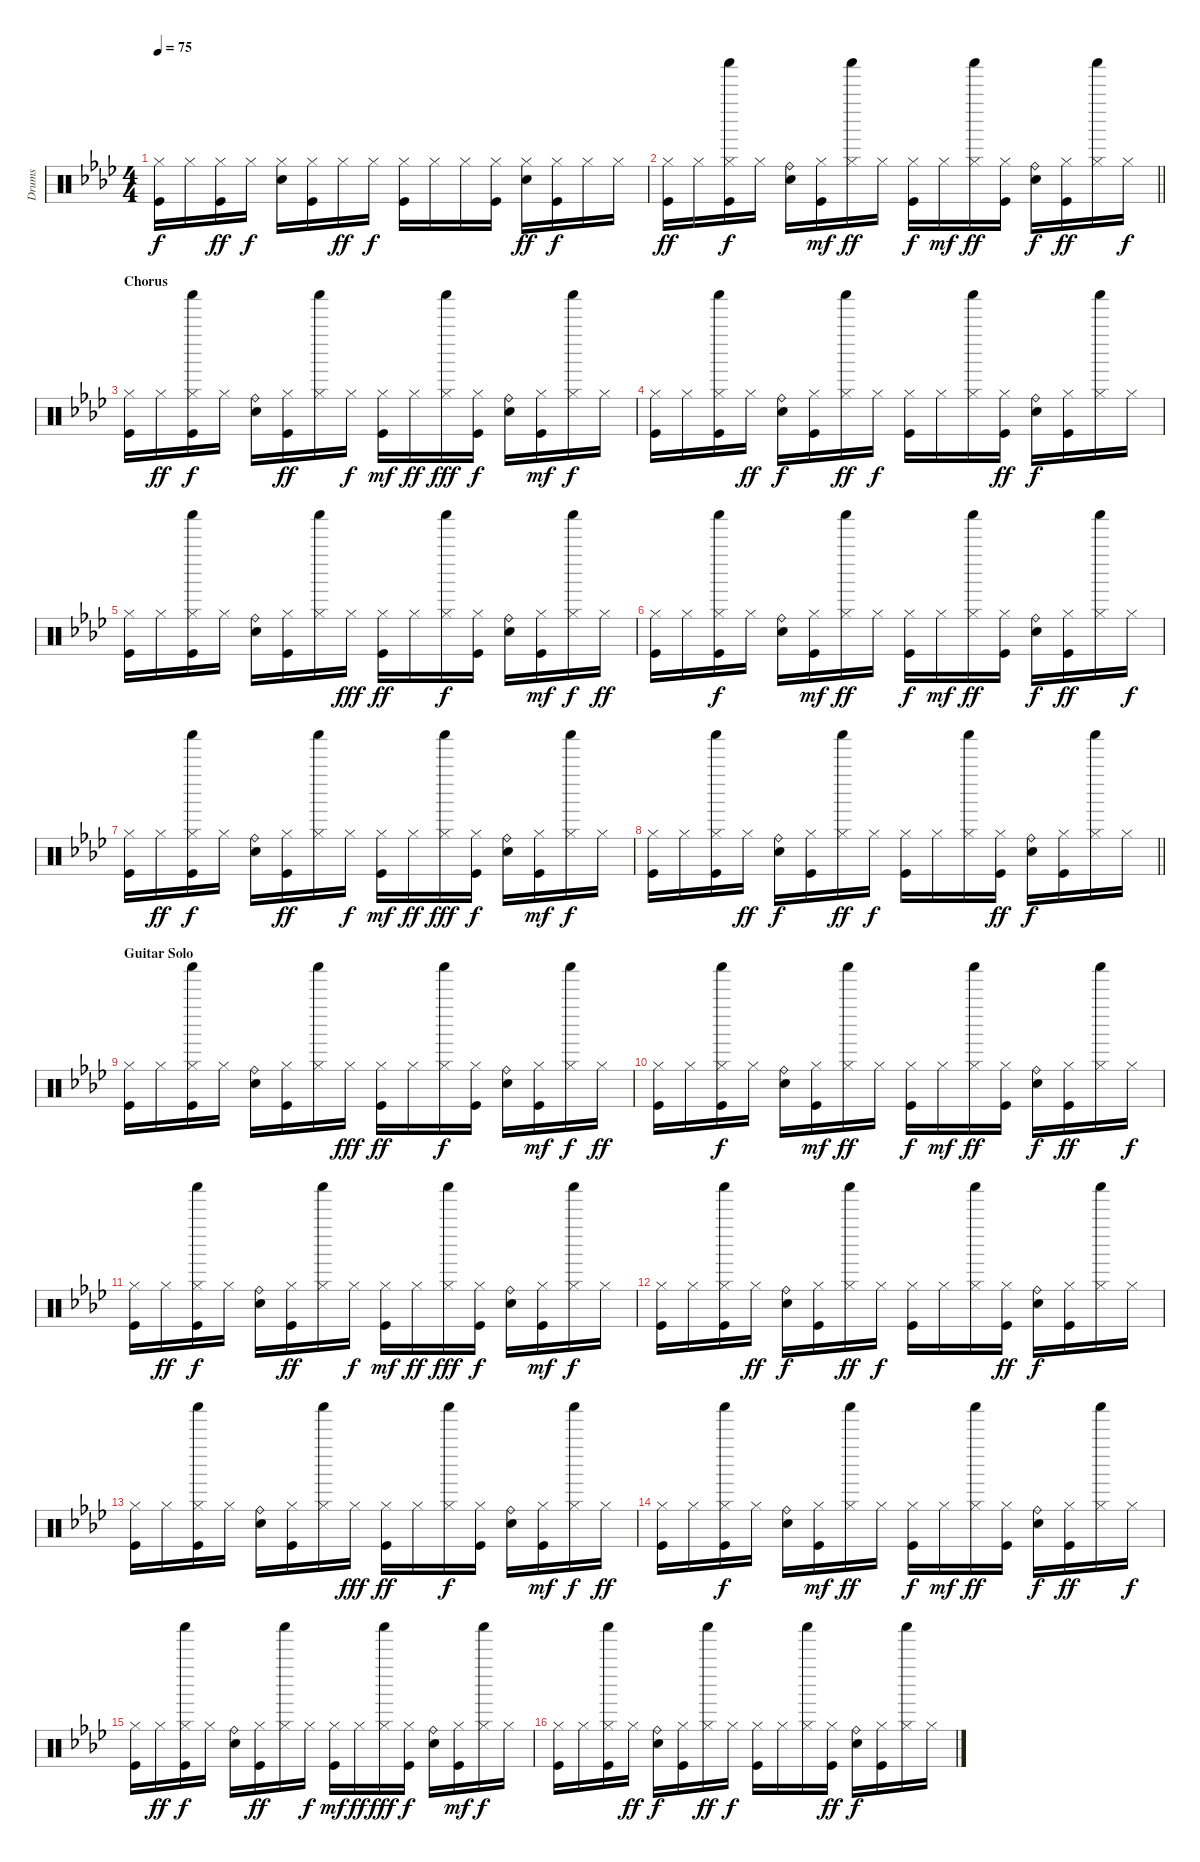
\track ("Drums" "Drums") {instrument percussion}
\staff {score}
\articulation defaults
\ts (4 4)
\tempo 75
\clef neutral
\ks fminor
("Hi-Hat (closed)" "Kick (hit)").16{dy f} "Hi-Hat (closed)".16 ("Hi-Hat (closed)" "Kick (hit)").16{dy ff} "Hi-Hat (closed)".16{dy f} ("Hi-Hat (closed)" "Electric Snare (hit)").16 ("Hi-Hat (closed)" "Kick (hit)").16 "Hi-Hat (closed)".16{dy ff} "Hi-Hat (closed)".16{dy f} ("Hi-Hat (closed)" "Kick (hit)").16 "Hi-Hat (closed)".16 "Hi-Hat (closed)".16 ("Hi-Hat (closed)" "Kick (hit)").16 ("Hi-Hat (closed)" "Electric Snare (hit)").16{dy ff} ("Hi-Hat (closed)" "Kick (hit)").16{dy f} "Hi-Hat (closed)".16 "Hi-Hat (closed)".16 |
\barLineRight lightlight
("Hi-Hat (closed)" "Kick (hit)").16{dy ff} "Hi-Hat (closed)".16 ("Shaker (hit)" "Hi-Hat (closed)" "Kick (hit)").16{dy f} "Hi-Hat (closed)".16 ("Ride (bell)" "Electric Snare (hit)").16 ("Hi-Hat (closed)" "Kick (hit)").16{dy mf} ("Shaker (hit)" "Hi-Hat (closed)").16{dy ff} "Hi-Hat (closed)".16 ("Hi-Hat (closed)" "Kick (hit)").16{dy f} "Hi-Hat (closed)".16{dy mf} ("Shaker (hit)" "Hi-Hat (closed)").16{dy ff} ("Hi-Hat (closed)" "Kick (hit)").16 ("Ride (bell)" "Electric Snare (hit)").16{dy f} ("Hi-Hat (closed)" "Kick (hit)").16{dy ff} ("Shaker (hit)" "Hi-Hat (closed)").16 "Hi-Hat (closed)".16{dy f} |
\section ("" "Chorus")
("Hi-Hat (closed)" "Kick (hit)").16 "Hi-Hat (closed)".16{dy ff} ("Shaker (hit)" "Hi-Hat (closed)" "Kick (hit)").16{dy f} "Hi-Hat (closed)".16 ("Ride (bell)" "Electric Snare (hit)").16 ("Hi-Hat (closed)" "Kick (hit)").16{dy ff} ("Shaker (hit)" "Hi-Hat (closed)").16 "Hi-Hat (closed)".16{dy f} ("Hi-Hat (closed)" "Kick (hit)").16{dy mf} "Hi-Hat (closed)".16{dy ff} ("Shaker (hit)" "Hi-Hat (closed)").16{dy fff} ("Hi-Hat (closed)" "Kick (hit)").16{dy f} ("Ride (bell)" "Electric Snare (hit)").16 ("Hi-Hat (closed)" "Kick (hit)").16{dy mf} ("Shaker (hit)" "Hi-Hat (closed)").16{dy f} "Hi-Hat (closed)".16 |
("Hi-Hat (closed)" "Kick (hit)").16 "Hi-Hat (closed)".16 ("Shaker (hit)" "Hi-Hat (closed)" "Kick (hit)").16 "Hi-Hat (closed)".16{dy ff} ("Ride (bell)" "Electric Snare (hit)").16{dy f} ("Hi-Hat (closed)" "Kick (hit)").16 ("Shaker (hit)" "Hi-Hat (closed)").16{dy ff} "Hi-Hat (closed)".16{dy f} ("Hi-Hat (closed)" "Kick (hit)").16 "Hi-Hat (closed)".16 ("Shaker (hit)" "Hi-Hat (closed)").16 ("Hi-Hat (closed)" "Kick (hit)").16{dy ff} ("Ride (bell)" "Electric Snare (hit)").16{dy f} ("Hi-Hat (closed)" "Kick (hit)").16 ("Shaker (hit)" "Hi-Hat (closed)").16 "Hi-Hat (closed)".16 |
("Hi-Hat (closed)" "Kick (hit)").16 "Hi-Hat (closed)".16 ("Shaker (hit)" "Hi-Hat (closed)" "Kick (hit)").16 "Hi-Hat (closed)".16 ("Ride (bell)" "Electric Snare (hit)").16 ("Hi-Hat (closed)" "Kick (hit)").16 ("Shaker (hit)" "Hi-Hat (closed)").16 "Hi-Hat (closed)".16{dy fff} ("Hi-Hat (closed)" "Kick (hit)").16{dy ff} "Hi-Hat (closed)".16 ("Shaker (hit)" "Hi-Hat (closed)").16{dy f} ("Hi-Hat (closed)" "Kick (hit)").16 ("Ride (bell)" "Electric Snare (hit)").16 ("Hi-Hat (closed)" "Kick (hit)").16{dy mf} ("Shaker (hit)" "Hi-Hat (closed)").16{dy f} "Hi-Hat (closed)".16{dy ff} |
("Hi-Hat (closed)" "Kick (hit)").16 "Hi-Hat (closed)".16 ("Shaker (hit)" "Hi-Hat (closed)" "Kick (hit)").16{dy f} "Hi-Hat (closed)".16 ("Ride (bell)" "Electric Snare (hit)").16 ("Hi-Hat (closed)" "Kick (hit)").16{dy mf} ("Shaker (hit)" "Hi-Hat (closed)").16{dy ff} "Hi-Hat (closed)".16 ("Hi-Hat (closed)" "Kick (hit)").16{dy f} "Hi-Hat (closed)".16{dy mf} ("Shaker (hit)" "Hi-Hat (closed)").16{dy ff} ("Hi-Hat (closed)" "Kick (hit)").16 ("Ride (bell)" "Electric Snare (hit)").16{dy f} ("Hi-Hat (closed)" "Kick (hit)").16{dy ff} ("Shaker (hit)" "Hi-Hat (closed)").16 "Hi-Hat (closed)".16{dy f} |
("Hi-Hat (closed)" "Kick (hit)").16 "Hi-Hat (closed)".16{dy ff} ("Shaker (hit)" "Hi-Hat (closed)" "Kick (hit)").16{dy f} "Hi-Hat (closed)".16 ("Ride (bell)" "Electric Snare (hit)").16 ("Hi-Hat (closed)" "Kick (hit)").16{dy ff} ("Shaker (hit)" "Hi-Hat (closed)").16 "Hi-Hat (closed)".16{dy f} ("Hi-Hat (closed)" "Kick (hit)").16{dy mf} "Hi-Hat (closed)".16{dy ff} ("Shaker (hit)" "Hi-Hat (closed)").16{dy fff} ("Hi-Hat (closed)" "Kick (hit)").16{dy f} ("Ride (bell)" "Electric Snare (hit)").16 ("Hi-Hat (closed)" "Kick (hit)").16{dy mf} ("Shaker (hit)" "Hi-Hat (closed)").16{dy f} "Hi-Hat (closed)".16 |
\barLineRight lightlight
("Hi-Hat (closed)" "Kick (hit)").16 "Hi-Hat (closed)".16 ("Shaker (hit)" "Hi-Hat (closed)" "Kick (hit)").16 "Hi-Hat (closed)".16{dy ff} ("Ride (bell)" "Electric Snare (hit)").16{dy f} ("Hi-Hat (closed)" "Kick (hit)").16 ("Shaker (hit)" "Hi-Hat (closed)").16{dy ff} "Hi-Hat (closed)".16{dy f} ("Hi-Hat (closed)" "Kick (hit)").16 "Hi-Hat (closed)".16 ("Shaker (hit)" "Hi-Hat (closed)").16 ("Hi-Hat (closed)" "Kick (hit)").16{dy ff} ("Ride (bell)" "Electric Snare (hit)").16{dy f} ("Hi-Hat (closed)" "Kick (hit)").16 ("Shaker (hit)" "Hi-Hat (closed)").16 "Hi-Hat (closed)".16 |
\section ("" "Guitar Solo")
("Hi-Hat (closed)" "Kick (hit)").16 "Hi-Hat (closed)".16 ("Shaker (hit)" "Hi-Hat (closed)" "Kick (hit)").16 "Hi-Hat (closed)".16 ("Ride (bell)" "Electric Snare (hit)").16 ("Hi-Hat (closed)" "Kick (hit)").16 ("Shaker (hit)" "Hi-Hat (closed)").16 "Hi-Hat (closed)".16{dy fff} ("Hi-Hat (closed)" "Kick (hit)").16{dy ff} "Hi-Hat (closed)".16 ("Shaker (hit)" "Hi-Hat (closed)").16{dy f} ("Hi-Hat (closed)" "Kick (hit)").16 ("Ride (bell)" "Electric Snare (hit)").16 ("Hi-Hat (closed)" "Kick (hit)").16{dy mf} ("Shaker (hit)" "Hi-Hat (closed)").16{dy f} "Hi-Hat (closed)".16{dy ff} |
("Hi-Hat (closed)" "Kick (hit)").16 "Hi-Hat (closed)".16 ("Shaker (hit)" "Hi-Hat (closed)" "Kick (hit)").16{dy f} "Hi-Hat (closed)".16 ("Ride (bell)" "Electric Snare (hit)").16 ("Hi-Hat (closed)" "Kick (hit)").16{dy mf} ("Shaker (hit)" "Hi-Hat (closed)").16{dy ff} "Hi-Hat (closed)".16 ("Hi-Hat (closed)" "Kick (hit)").16{dy f} "Hi-Hat (closed)".16{dy mf} ("Shaker (hit)" "Hi-Hat (closed)").16{dy ff} ("Hi-Hat (closed)" "Kick (hit)").16 ("Ride (bell)" "Electric Snare (hit)").16{dy f} ("Hi-Hat (closed)" "Kick (hit)").16{dy ff} ("Shaker (hit)" "Hi-Hat (closed)").16 "Hi-Hat (closed)".16{dy f} |
("Hi-Hat (closed)" "Kick (hit)").16 "Hi-Hat (closed)".16{dy ff} ("Shaker (hit)" "Hi-Hat (closed)" "Kick (hit)").16{dy f} "Hi-Hat (closed)".16 ("Ride (bell)" "Electric Snare (hit)").16 ("Hi-Hat (closed)" "Kick (hit)").16{dy ff} ("Shaker (hit)" "Hi-Hat (closed)").16 "Hi-Hat (closed)".16{dy f} ("Hi-Hat (closed)" "Kick (hit)").16{dy mf} "Hi-Hat (closed)".16{dy ff} ("Shaker (hit)" "Hi-Hat (closed)").16{dy fff} ("Hi-Hat (closed)" "Kick (hit)").16{dy f} ("Ride (bell)" "Electric Snare (hit)").16 ("Hi-Hat (closed)" "Kick (hit)").16{dy mf} ("Shaker (hit)" "Hi-Hat (closed)").16{dy f} "Hi-Hat (closed)".16 |
("Hi-Hat (closed)" "Kick (hit)").16 "Hi-Hat (closed)".16 ("Shaker (hit)" "Hi-Hat (closed)" "Kick (hit)").16 "Hi-Hat (closed)".16{dy ff} ("Ride (bell)" "Electric Snare (hit)").16{dy f} ("Hi-Hat (closed)" "Kick (hit)").16 ("Shaker (hit)" "Hi-Hat (closed)").16{dy ff} "Hi-Hat (closed)".16{dy f} ("Hi-Hat (closed)" "Kick (hit)").16 "Hi-Hat (closed)".16 ("Shaker (hit)" "Hi-Hat (closed)").16 ("Hi-Hat (closed)" "Kick (hit)").16{dy ff} ("Ride (bell)" "Electric Snare (hit)").16{dy f} ("Hi-Hat (closed)" "Kick (hit)").16 ("Shaker (hit)" "Hi-Hat (closed)").16 "Hi-Hat (closed)".16 |
("Hi-Hat (closed)" "Kick (hit)").16 "Hi-Hat (closed)".16 ("Shaker (hit)" "Hi-Hat (closed)" "Kick (hit)").16 "Hi-Hat (closed)".16 ("Ride (bell)" "Electric Snare (hit)").16 ("Hi-Hat (closed)" "Kick (hit)").16 ("Shaker (hit)" "Hi-Hat (closed)").16 "Hi-Hat (closed)".16{dy fff} ("Hi-Hat (closed)" "Kick (hit)").16{dy ff} "Hi-Hat (closed)".16 ("Shaker (hit)" "Hi-Hat (closed)").16{dy f} ("Hi-Hat (closed)" "Kick (hit)").16 ("Ride (bell)" "Electric Snare (hit)").16 ("Hi-Hat (closed)" "Kick (hit)").16{dy mf} ("Shaker (hit)" "Hi-Hat (closed)").16{dy f} "Hi-Hat (closed)".16{dy ff} |
("Hi-Hat (closed)" "Kick (hit)").16 "Hi-Hat (closed)".16 ("Shaker (hit)" "Hi-Hat (closed)" "Kick (hit)").16{dy f} "Hi-Hat (closed)".16 ("Ride (bell)" "Electric Snare (hit)").16 ("Hi-Hat (closed)" "Kick (hit)").16{dy mf} ("Shaker (hit)" "Hi-Hat (closed)").16{dy ff} "Hi-Hat (closed)".16 ("Hi-Hat (closed)" "Kick (hit)").16{dy f} "Hi-Hat (closed)".16{dy mf} ("Shaker (hit)" "Hi-Hat (closed)").16{dy ff} ("Hi-Hat (closed)" "Kick (hit)").16 ("Ride (bell)" "Electric Snare (hit)").16{dy f} ("Hi-Hat (closed)" "Kick (hit)").16{dy ff} ("Shaker (hit)" "Hi-Hat (closed)").16 "Hi-Hat (closed)".16{dy f} |
("Hi-Hat (closed)" "Kick (hit)").16 "Hi-Hat (closed)".16{dy ff} ("Shaker (hit)" "Hi-Hat (closed)" "Kick (hit)").16{dy f} "Hi-Hat (closed)".16 ("Ride (bell)" "Electric Snare (hit)").16 ("Hi-Hat (closed)" "Kick (hit)").16{dy ff} ("Shaker (hit)" "Hi-Hat (closed)").16 "Hi-Hat (closed)".16{dy f} ("Hi-Hat (closed)" "Kick (hit)").16{dy mf} "Hi-Hat (closed)".16{dy ff} ("Shaker (hit)" "Hi-Hat (closed)").16{dy fff} ("Hi-Hat (closed)" "Kick (hit)").16{dy f} ("Ride (bell)" "Electric Snare (hit)").16 ("Hi-Hat (closed)" "Kick (hit)").16{dy mf} ("Shaker (hit)" "Hi-Hat (closed)").16{dy f} "Hi-Hat (closed)".16 |
("Hi-Hat (closed)" "Kick (hit)").16 "Hi-Hat (closed)".16 ("Shaker (hit)" "Hi-Hat (closed)" "Kick (hit)").16 "Hi-Hat (closed)".16{dy ff} ("Ride (bell)" "Electric Snare (hit)").16{dy f} ("Hi-Hat (closed)" "Kick (hit)").16 ("Shaker (hit)" "Hi-Hat (closed)").16{dy ff} "Hi-Hat (closed)".16{dy f} ("Hi-Hat (closed)" "Kick (hit)").16 "Hi-Hat (closed)".16 ("Shaker (hit)" "Hi-Hat (closed)").16 ("Hi-Hat (closed)" "Kick (hit)").16{dy ff} ("Ride (bell)" "Electric Snare (hit)").16{dy f} ("Hi-Hat (closed)" "Kick (hit)").16 ("Shaker (hit)" "Hi-Hat (closed)").16 "Hi-Hat (closed)".16
